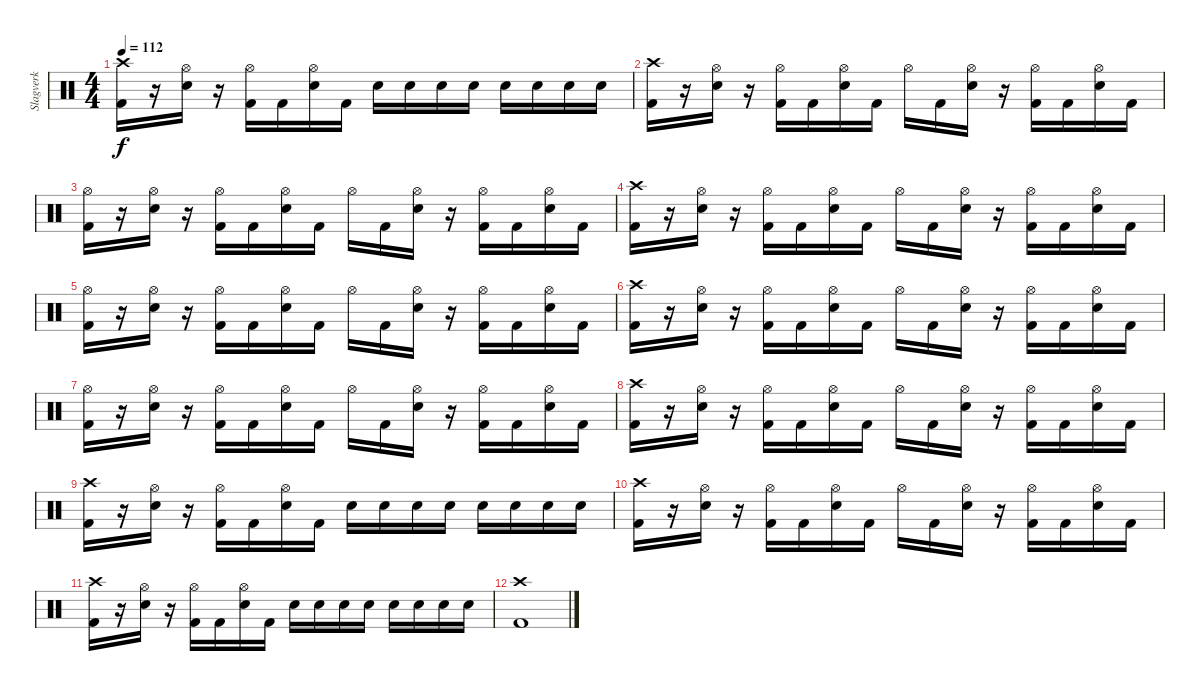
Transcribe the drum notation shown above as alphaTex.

\track ("Slagverk" "Slagverk") {instrument percussion}
\staff {score}
\articulation defaults
\ts (4 4)
\tempo 112
\clef neutral
\ks c
("Crash high (hit)" "Kick (hit) 2").16{dy f} r.16 ("Hi-Hat (open)" "Snare (hit) 2").16 r.16 ("Hi-Hat (open)" "Kick (hit) 2").16 "Kick (hit) 2".16 ("Hi-Hat (open)" "Snare (hit) 2").16 "Kick (hit) 2".16 "Snare (hit) 2".16 "Snare (hit) 2".16 "Snare (hit) 2".16 "Snare (hit) 2".16 "Snare (hit) 2".16 "Snare (hit) 2".16 "Snare (hit) 2".16 "Snare (hit) 2".16 |
("Crash high (hit)" "Kick (hit) 2").16 r.16 ("Hi-Hat (open)" "Snare (hit) 2").16 r.16 ("Hi-Hat (open)" "Kick (hit) 2").16 "Kick (hit) 2".16 ("Hi-Hat (open)" "Snare (hit) 2").16 "Kick (hit) 2".16 "Hi-Hat (open)".16 "Kick (hit) 2".16 ("Hi-Hat (open)" "Snare (hit) 2").16 r.16 ("Hi-Hat (open)" "Kick (hit) 2").16 "Kick (hit) 2".16 ("Hi-Hat (open)" "Snare (hit) 2").16 "Kick (hit) 2".16 |
("Hi-Hat (open)" "Kick (hit) 2").16 r.16 ("Hi-Hat (open)" "Snare (hit) 2").16 r.16 ("Hi-Hat (open)" "Kick (hit) 2").16 "Kick (hit) 2".16 ("Hi-Hat (open)" "Snare (hit) 2").16 "Kick (hit) 2".16 "Hi-Hat (open)".16 "Kick (hit) 2".16 ("Hi-Hat (open)" "Snare (hit) 2").16 r.16 ("Hi-Hat (open)" "Kick (hit) 2").16 "Kick (hit) 2".16 ("Hi-Hat (open)" "Snare (hit) 2").16 "Kick (hit) 2".16 |
("Crash high (hit)" "Kick (hit) 2").16 r.16 ("Hi-Hat (open)" "Snare (hit) 2").16 r.16 ("Hi-Hat (open)" "Kick (hit) 2").16 "Kick (hit) 2".16 ("Hi-Hat (open)" "Snare (hit) 2").16 "Kick (hit) 2".16 "Hi-Hat (open)".16 "Kick (hit) 2".16 ("Hi-Hat (open)" "Snare (hit) 2").16 r.16 ("Hi-Hat (open)" "Kick (hit) 2").16 "Kick (hit) 2".16 ("Hi-Hat (open)" "Snare (hit) 2").16 "Kick (hit) 2".16 |
("Hi-Hat (open)" "Kick (hit) 2").16 r.16 ("Hi-Hat (open)" "Snare (hit) 2").16 r.16 ("Hi-Hat (open)" "Kick (hit) 2").16 "Kick (hit) 2".16 ("Hi-Hat (open)" "Snare (hit) 2").16 "Kick (hit) 2".16 "Hi-Hat (open)".16 "Kick (hit) 2".16 ("Hi-Hat (open)" "Snare (hit) 2").16 r.16 ("Hi-Hat (open)" "Kick (hit) 2").16 "Kick (hit) 2".16 ("Hi-Hat (open)" "Snare (hit) 2").16 "Kick (hit) 2".16 |
("Crash high (hit)" "Kick (hit) 2").16 r.16 ("Hi-Hat (open)" "Snare (hit) 2").16 r.16 ("Hi-Hat (open)" "Kick (hit) 2").16 "Kick (hit) 2".16 ("Hi-Hat (open)" "Snare (hit) 2").16 "Kick (hit) 2".16 "Hi-Hat (open)".16 "Kick (hit) 2".16 ("Hi-Hat (open)" "Snare (hit) 2").16 r.16 ("Hi-Hat (open)" "Kick (hit) 2").16 "Kick (hit) 2".16 ("Hi-Hat (open)" "Snare (hit) 2").16 "Kick (hit) 2".16 |
("Hi-Hat (open)" "Kick (hit) 2").16 r.16 ("Hi-Hat (open)" "Snare (hit) 2").16 r.16 ("Hi-Hat (open)" "Kick (hit) 2").16 "Kick (hit) 2".16 ("Hi-Hat (open)" "Snare (hit) 2").16 "Kick (hit) 2".16 "Hi-Hat (open)".16 "Kick (hit) 2".16 ("Hi-Hat (open)" "Snare (hit) 2").16 r.16 ("Hi-Hat (open)" "Kick (hit) 2").16 "Kick (hit) 2".16 ("Hi-Hat (open)" "Snare (hit) 2").16 "Kick (hit) 2".16 |
("Crash high (hit)" "Kick (hit) 2").16 r.16 ("Hi-Hat (open)" "Snare (hit) 2").16 r.16 ("Hi-Hat (open)" "Kick (hit) 2").16 "Kick (hit) 2".16 ("Hi-Hat (open)" "Snare (hit) 2").16 "Kick (hit) 2".16 "Hi-Hat (open)".16 "Kick (hit) 2".16 ("Hi-Hat (open)" "Snare (hit) 2").16 r.16 ("Hi-Hat (open)" "Kick (hit) 2").16 "Kick (hit) 2".16 ("Hi-Hat (open)" "Snare (hit) 2").16 "Kick (hit) 2".16 |
("Crash high (hit)" "Kick (hit) 2").16 r.16 ("Hi-Hat (open)" "Snare (hit) 2").16 r.16 ("Hi-Hat (open)" "Kick (hit) 2").16 "Kick (hit) 2".16 ("Hi-Hat (open)" "Snare (hit) 2").16 "Kick (hit) 2".16 "Snare (hit) 2".16 "Snare (hit) 2".16 "Snare (hit) 2".16 "Snare (hit) 2".16 "Snare (hit) 2".16 "Snare (hit) 2".16 "Snare (hit) 2".16 "Snare (hit) 2".16 |
("Crash high (hit)" "Kick (hit) 2").16 r.16 ("Hi-Hat (open)" "Snare (hit) 2").16 r.16 ("Hi-Hat (open)" "Kick (hit) 2").16 "Kick (hit) 2".16 ("Hi-Hat (open)" "Snare (hit) 2").16 "Kick (hit) 2".16 "Hi-Hat (open)".16 "Kick (hit) 2".16 ("Hi-Hat (open)" "Snare (hit) 2").16 r.16 ("Hi-Hat (open)" "Kick (hit) 2").16 "Kick (hit) 2".16 ("Hi-Hat (open)" "Snare (hit) 2").16 "Kick (hit) 2".16 |
("Crash high (hit)" "Kick (hit) 2").16 r.16 ("Hi-Hat (open)" "Snare (hit) 2").16 r.16 ("Hi-Hat (open)" "Kick (hit) 2").16 "Kick (hit) 2".16 ("Hi-Hat (open)" "Snare (hit) 2").16 "Kick (hit) 2".16 "Snare (hit) 2".16 "Snare (hit) 2".16 "Snare (hit) 2".16 "Snare (hit) 2".16 "Snare (hit) 2".16 "Snare (hit) 2".16 "Snare (hit) 2".16 "Snare (hit) 2".16 |
("Crash high (hit)" "Kick (hit) 2").1
